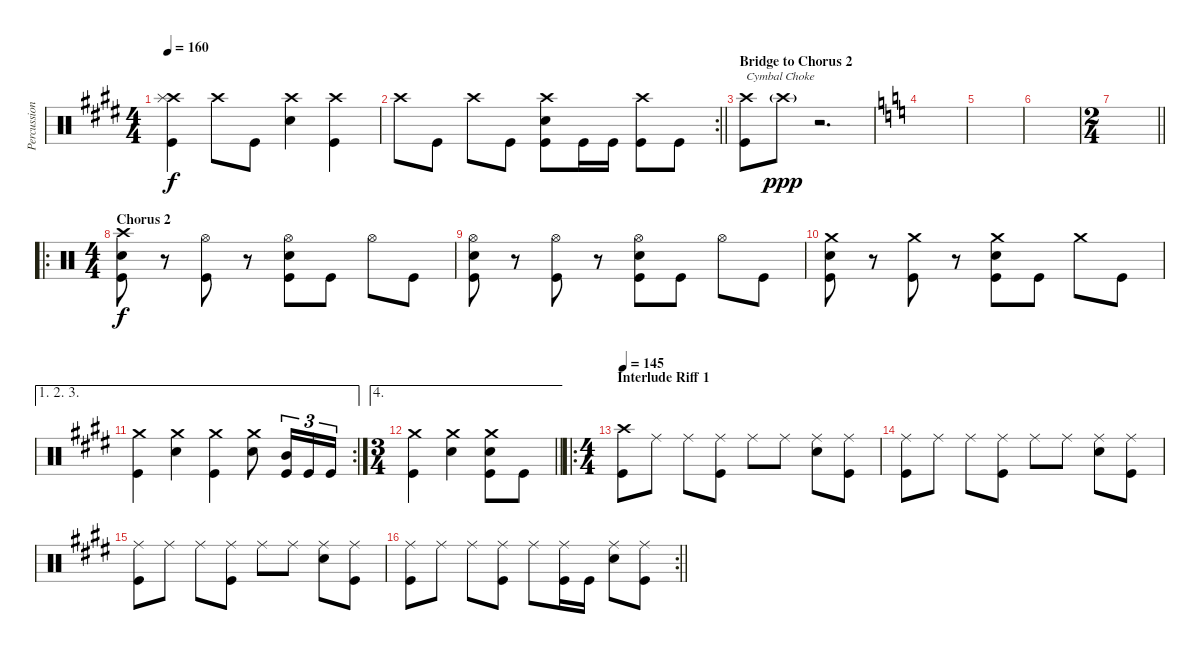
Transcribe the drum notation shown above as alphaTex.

\track ("Percussion" "Percussion") {instrument percussion}
\staff {score}
\articulation defaults
\ts (4 4)
\tempo 160
\clef neutral
\ks e
("Crash high (hit)" "Splash (hit)" "Kick (hit)").4{dy f} "Crash high (hit)".8 "Kick (hit)".8 ("Crash high (hit)" "Electric Snare (hit)").4 ("Crash high (hit)" "Kick (hit)").4 |
\rc 2
\barLineRight lightlight "Crash high (hit)".8 "Kick (hit)".8 "Crash high (hit)".8 "Kick (hit)".8
("Crash high (hit)" "Electric Snare (hit)" "Kick (hit)").8 "Kick (hit)".16 "Kick (hit)".16 ("Crash high (hit)" "Kick (hit)").8 "Kick (hit)".8 |
\section ("" "Bridge to Chorus 2")
("Crash high (hit)" "Kick (hit)").8{txt "Cymbal Choke"} "Crash high (hit)"{g}.8{dy ppp} r.2{d} |
\ks c
|
|
|
\ts (2 4)
\barLineRight lightlight
|
\ro
\ts (4 4)
\section ("" "Chorus 2")
("Crash high (hit)" "Electric Snare (hit)" "Kick (hit)").8{dy f} r.8 ("Hi-Hat (open)" "Kick (hit)").8 r.8 ("Hi-Hat (open)" "Electric Snare (hit)" "Kick (hit)").8 "Kick (hit)".8 "Hi-Hat (open)".8 "Kick (hit)".8 |
("Hi-Hat (open)" "Electric Snare (hit)" "Kick (hit)").8 r.8 ("Hi-Hat (open)" "Kick (hit)").8 r.8 ("Hi-Hat (open)" "Electric Snare (hit)" "Kick (hit)").8 "Kick (hit)".8 "Hi-Hat (open)".8 "Kick (hit)".8 |
("Crash medium (hit)" "Electric Snare (hit)" "Kick (hit)").8 r.8 ("Crash medium (hit)" "Kick (hit)").8 r.8 ("Crash medium (hit)" "Electric Snare (hit)" "Kick (hit)").8 "Kick (hit)".8 "Crash medium (hit)".8 "Kick (hit)".8 |
\ae (1 2 3)
\rc 2
\ks e
("Crash medium (hit)" "Kick (hit)").4 ("Crash medium (hit)" "Electric Snare (hit)").4 ("Crash medium (hit)" "Kick (hit)").4 ("Crash medium (hit)" "Electric Snare (hit)").8 ("Mid Tom (hit)" "Kick (hit)").16{tu (3 2)} "Kick (hit)".16{tu (3 2)} "Kick (hit)".16{tu (3 2)} |
\ae 4
\ts (3 4)
\barLineRight lightlight
("Crash medium (hit)" "Kick (hit)").4 ("Crash medium (hit)" "Electric Snare (hit)").4 ("Crash medium (hit)" "Electric Snare (hit)" "Kick (hit)").8 "Kick (hit)".8 |
\ro
\ts (4 4)
\section ("" "Interlude Riff 1")
\tempo 145
("Crash high (hit)" "Kick (hit)").8 "Ride (middle)".8 "Ride (middle)".8 ("Ride (middle)" "Kick (hit)").8 "Ride (middle)".8 "Ride (middle)".8 ("Ride (middle)" "Electric Snare (hit)").8 ("Ride (middle)" "Kick (hit)").8 |
("Ride (middle)" "Kick (hit)").8 "Ride (middle)".8 "Ride (middle)".8 ("Ride (middle)" "Kick (hit)").8 "Ride (middle)".8 "Ride (middle)".8 ("Ride (middle)" "Electric Snare (hit)").8 ("Ride (middle)" "Kick (hit)").8 |
("Ride (middle)" "Kick (hit)").8 "Ride (middle)".8 "Ride (middle)".8 ("Ride (middle)" "Kick (hit)").8 "Ride (middle)".8 "Ride (middle)".8 ("Ride (middle)" "Electric Snare (hit)").8 ("Ride (middle)" "Kick (hit)").8 |
\rc 2
\barLineRight lightlight
("Ride (middle)" "Kick (hit)").8 "Ride (middle)".8 "Ride (middle)".8 ("Ride (middle)" "Kick (hit)").8 "Ride (middle)".8 ("Ride (middle)" "Kick (hit)").16 "Kick (hit)".16 ("Ride (middle)" "Electric Snare (hit)").8 ("Ride (middle)" "Kick (hit)").8
